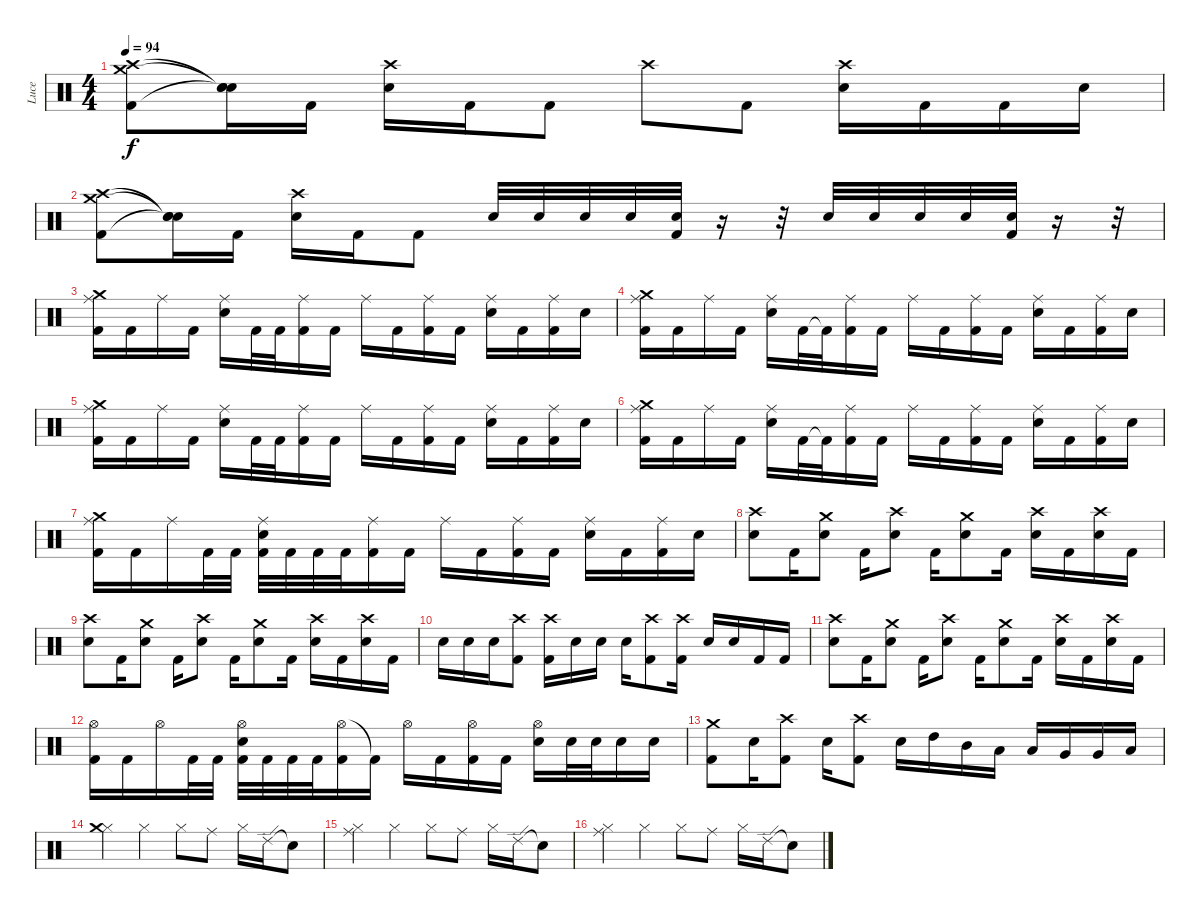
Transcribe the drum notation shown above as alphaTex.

\track ("Luce" "Luce") {instrument percussion}
\staff {score}
\articulation defaults
\ts (4 4)
\tempo 94
\clef neutral
\ks c
("Crash high (hit)" "Crash medium (hit)" "Kick (hit) 2").8{dy f} ("Snare (hit)"{t} "Snare (hit)"{t} "Snare (hit)"{t}).16 "Kick (hit) 2".16 ("Crash high (hit)" "Electric Snare (hit)").16 "Kick (hit) 2".16 "Kick (hit) 2".8 "Crash high (hit)".8 "Kick (hit) 2".8 ("Crash high (hit)" "Electric Snare (hit)").16 "Kick (hit) 2".16 "Kick (hit) 2".16 "Electric Snare (hit)".16 |
("Crash high (hit)" "Crash medium (hit)" "Kick (hit) 2").8 ("Snare (hit)"{t} "Snare (hit)"{t} "Snare (hit)"{t}).16 "Kick (hit) 2".16 ("Crash high (hit)" "Electric Snare (hit)").16 "Kick (hit) 2".16 "Kick (hit) 2".8 "Electric Snare (hit)".32 "Electric Snare (hit)".32 "Electric Snare (hit)".32 "Electric Snare (hit)".32 ("Electric Snare (hit)" "Kick (hit) 2").32 r.16 r.32 "Electric Snare (hit)".32 "Electric Snare (hit)".32 "Electric Snare (hit)".32 "Electric Snare (hit)".32 ("Electric Snare (hit)" "Kick (hit) 2").32 r.16 r.32 |
("Crash medium (hit)" "Ride (middle)" "Kick (hit) 2").16 "Kick (hit) 2".16 "Ride (middle)".16 "Kick (hit) 2".16 ("Electric Snare (hit)" "Ride (middle)").16 "Kick (hit) 2".32 "Kick (hit) 2".32 ("Ride (middle)" "Kick (hit) 2").16 "Kick (hit) 2".16 "Ride (middle)".16 "Kick (hit) 2".16 ("Ride (middle)" "Kick (hit) 2").16 "Kick (hit) 2".16 ("Electric Snare (hit)" "Ride (middle)").16 "Kick (hit) 2".16 ("Kick (hit) 2" "Ride (middle)").16 "Electric Snare (hit)".16 |
("Crash medium (hit)" "Ride (middle)" "Kick (hit) 2").16 "Kick (hit) 2".16 "Ride (middle)".16 "Kick (hit) 2".16 ("Electric Snare (hit)" "Ride (middle)").16 "Kick (hit) 2".32 "Kick (hit) 2"{t}.32 ("Ride (middle)" "Kick (hit) 2").16 "Kick (hit) 2".16 "Ride (middle)".16 "Kick (hit) 2".16 ("Ride (middle)" "Kick (hit) 2").16 "Kick (hit) 2".16 ("Electric Snare (hit)" "Ride (middle)").16 "Kick (hit) 2".16 ("Kick (hit) 2" "Ride (middle)").16 "Electric Snare (hit)".16 |
("Crash medium (hit)" "Ride (middle)" "Kick (hit) 2").16 "Kick (hit) 2".16 "Ride (middle)".16 "Kick (hit) 2".16 ("Electric Snare (hit)" "Ride (middle)").16 "Kick (hit) 2".32 "Kick (hit) 2".32 ("Ride (middle)" "Kick (hit) 2").16 "Kick (hit) 2".16 "Ride (middle)".16 "Kick (hit) 2".16 ("Ride (middle)" "Kick (hit) 2").16 "Kick (hit) 2".16 ("Electric Snare (hit)" "Ride (middle)").16 "Kick (hit) 2".16 ("Kick (hit) 2" "Ride (middle)").16 "Electric Snare (hit)".16 |
("Crash medium (hit)" "Ride (middle)" "Kick (hit) 2").16 "Kick (hit) 2".16 "Ride (middle)".16 "Kick (hit) 2".16 ("Electric Snare (hit)" "Ride (middle)").16 "Kick (hit) 2".32 "Kick (hit) 2"{t}.32 ("Ride (middle)" "Kick (hit) 2").16 "Kick (hit) 2".16 "Ride (middle)".16 "Kick (hit) 2".16 ("Ride (middle)" "Kick (hit) 2").16 "Kick (hit) 2".16 ("Electric Snare (hit)" "Ride (middle)").16 "Kick (hit) 2".16 ("Kick (hit) 2" "Ride (middle)").16 "Electric Snare (hit)".16 |
("Crash medium (hit)" "Ride (middle)" "Kick (hit) 2").16 "Kick (hit) 2".16 "Ride (middle)".16 "Kick (hit) 2".32 "Kick (hit) 2".32 ("Electric Snare (hit)" "Ride (middle)" "Kick (hit) 2").32 "Kick (hit) 2".32 "Kick (hit) 2".32 "Kick (hit) 2".32 ("Ride (middle)" "Kick (hit) 2").16 "Kick (hit) 2".16 "Ride (middle)".16 "Kick (hit) 2".16 ("Ride (middle)" "Kick (hit) 2").16 "Kick (hit) 2".16 ("Electric Snare (hit)" "Ride (middle)").16 "Kick (hit) 2".16 ("Kick (hit) 2" "Ride (middle)").16 "Electric Snare (hit)".16 |
("Crash high (hit)" "Electric Snare (hit)").8 "Kick (hit) 2".16 ("Crash medium (hit)" "Electric Snare (hit)").8 "Kick (hit) 2".16 ("Crash high (hit)" "Electric Snare (hit)").8 "Kick (hit) 2".16 ("Crash medium (hit)" "Electric Snare (hit)").8 "Kick (hit) 2".16 ("Crash high (hit)" "Electric Snare (hit)").16 "Kick (hit) 2".16 ("Crash high (hit)" "Electric Snare (hit)").16 "Kick (hit) 2".16 |
("Crash high (hit)" "Electric Snare (hit)").8 "Kick (hit) 2".16 ("Crash medium (hit)" "Electric Snare (hit)").8 "Kick (hit) 2".16 ("Crash high (hit)" "Electric Snare (hit)").8 "Kick (hit) 2".16 ("Crash medium (hit)" "Electric Snare (hit)").8 "Kick (hit) 2".16 ("Crash high (hit)" "Electric Snare (hit)").16 "Kick (hit) 2".16 ("Crash high (hit)" "Electric Snare (hit)").16 "Kick (hit) 2".16 |
"Electric Snare (hit)".16 "Electric Snare (hit)".16 "Electric Snare (hit)".16 ("Crash high (hit)" "Kick (hit) 2").8 ("Crash high (hit)" "Kick (hit) 2").16 "Electric Snare (hit)".16 "Electric Snare (hit)".16 "Electric Snare (hit)".16 ("Crash high (hit)" "Kick (hit) 2").8 ("Crash high (hit)" "Kick (hit) 2").16 "Electric Snare (hit)".16 "Electric Snare (hit)".16 "Kick (hit) 2".16 "Kick (hit) 2".16 |
("Crash high (hit)" "Electric Snare (hit)").8 "Kick (hit) 2".16 ("Crash medium (hit)" "Electric Snare (hit)").8 "Kick (hit) 2".16 ("Crash high (hit)" "Electric Snare (hit)").8 "Kick (hit) 2".16 ("Crash medium (hit)" "Electric Snare (hit)").8 "Kick (hit) 2".16 ("Crash high (hit)" "Electric Snare (hit)").16 "Kick (hit) 2".16 ("Crash high (hit)" "Electric Snare (hit)").16 "Kick (hit) 2".16 |
("Hi-Hat (open)" "Kick (hit) 2").16 "Kick (hit) 2".16 "Hi-Hat (open)".16 "Kick (hit) 2".32 "Kick (hit) 2".32 ("Hi-Hat (open)" "Electric Snare (hit)" "Kick (hit) 2").32 "Kick (hit) 2".32 "Kick (hit) 2".32 "Kick (hit) 2".32 ("Hi-Hat (open)" "Kick (hit) 2").16 "Kick (hit) 2"{t}.16 "Hi-Hat (open)".16 "Kick (hit) 2".16 ("Hi-Hat (open)" "Kick (hit) 2").16 "Kick (hit) 2".16 ("Hi-Hat (open)" "Electric Snare (hit)").16 "Electric Snare (hit)".32 "Electric Snare (hit)".32 "Electric Snare (hit)".16 "Electric Snare (hit)".16 |
("Crash medium (hit)" "Kick (hit) 2").8 "Electric Snare (hit)".16 ("Crash high (hit)" "Kick (hit) 2").8 "Electric Snare (hit)".16 ("Crash high (hit)" "Kick (hit) 2").8 "Electric Snare (hit)".16 "High Tom (hit)".16 "Mid Tom (hit)".16 "Low Tom (hit)".16 "Low Tom (hit)".16 "Very Low Tom (hit)".16 "Very Low Tom (hit)".16 "Low Floor Tom (hit)".16 |
("Hi-Hat (closed)" "Crash medium (hit)").4 "Hi-Hat (closed)".4 "Hi-Hat (closed)".8 "Ride (middle)".8 "Hi-Hat (closed)".16 "Ride (edge) 2".16 "Snare (hit)"{t}.8 |
("Hi-Hat (closed)" "Ride (middle)").4 "Hi-Hat (closed)".4 "Hi-Hat (closed)".8 "Ride (middle)".8 "Hi-Hat (closed)".16 "Ride (edge) 2".16 "Snare (hit)"{t}.8 |
("Hi-Hat (closed)" "Ride (middle)").4 "Hi-Hat (closed)".4 "Hi-Hat (closed)".8 "Ride (middle)".8 "Hi-Hat (closed)".16 "Ride (edge) 2".16 "Snare (hit)"{t}.8
